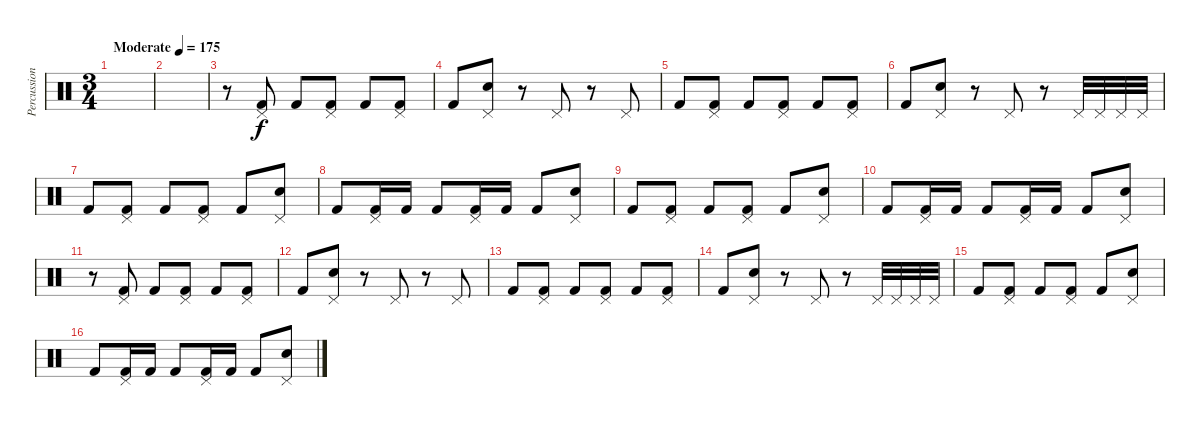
\track ("Percussion" "Percussion") {instrument percussion}
\staff {score}
\articulation defaults
\ts (3 4)
\tempo (175 "Moderate")
\clef neutral
\ks c
|
|
r.8 ("Pedal Hi-Hat (hit)" "Kick (hit) 2").8 "Kick (hit) 2".8 ("Pedal Hi-Hat (hit)" "Kick (hit) 2").8 "Kick (hit) 2".8 ("Pedal Hi-Hat (hit)" "Kick (hit) 2").8 |
"Kick (hit) 2".8 ("Pedal Hi-Hat (hit)" "Electric Snare (hit)").8 r.8 "Pedal Hi-Hat (hit)".8 r.8 "Pedal Hi-Hat (hit)".8 |
"Kick (hit) 2".8 ("Pedal Hi-Hat (hit)" "Kick (hit) 2").8 "Kick (hit) 2".8 ("Pedal Hi-Hat (hit)" "Kick (hit) 2").8 "Kick (hit) 2".8 ("Pedal Hi-Hat (hit)" "Kick (hit) 2").8 |
"Kick (hit) 2".8 ("Pedal Hi-Hat (hit)" "Electric Snare (hit)").8 r.8 "Pedal Hi-Hat (hit)".8 r.8 "Pedal Hi-Hat (hit)".32 "Pedal Hi-Hat (hit)".32 "Pedal Hi-Hat (hit)".32 "Pedal Hi-Hat (hit)".32 |
"Kick (hit) 2".8 ("Pedal Hi-Hat (hit)" "Kick (hit) 2").8 "Kick (hit) 2".8 ("Pedal Hi-Hat (hit)" "Kick (hit) 2").8 "Kick (hit) 2".8 ("Pedal Hi-Hat (hit)" "Electric Snare (hit)").8 |
"Kick (hit) 2".8 ("Pedal Hi-Hat (hit)" "Kick (hit) 2").16 "Kick (hit) 2".16 "Kick (hit) 2".8 ("Pedal Hi-Hat (hit)" "Kick (hit) 2").16 "Kick (hit) 2".16 "Kick (hit) 2".8 ("Pedal Hi-Hat (hit)" "Electric Snare (hit)").8 |
"Kick (hit) 2".8 ("Pedal Hi-Hat (hit)" "Kick (hit) 2").8 "Kick (hit) 2".8 ("Pedal Hi-Hat (hit)" "Kick (hit) 2").8 "Kick (hit) 2".8 ("Pedal Hi-Hat (hit)" "Electric Snare (hit)").8 |
"Kick (hit) 2".8 ("Pedal Hi-Hat (hit)" "Kick (hit) 2").16 "Kick (hit) 2".16 "Kick (hit) 2".8 ("Pedal Hi-Hat (hit)" "Kick (hit) 2").16 "Kick (hit) 2".16 "Kick (hit) 2".8 ("Pedal Hi-Hat (hit)" "Electric Snare (hit)").8 |
r.8 ("Pedal Hi-Hat (hit)" "Kick (hit) 2").8 "Kick (hit) 2".8 ("Pedal Hi-Hat (hit)" "Kick (hit) 2").8 "Kick (hit) 2".8 ("Pedal Hi-Hat (hit)" "Kick (hit) 2").8 |
"Kick (hit) 2".8 ("Pedal Hi-Hat (hit)" "Electric Snare (hit)").8 r.8 "Pedal Hi-Hat (hit)".8 r.8 "Pedal Hi-Hat (hit)".8 |
"Kick (hit) 2".8 ("Pedal Hi-Hat (hit)" "Kick (hit) 2").8 "Kick (hit) 2".8 ("Pedal Hi-Hat (hit)" "Kick (hit) 2").8 "Kick (hit) 2".8 ("Pedal Hi-Hat (hit)" "Kick (hit) 2").8 |
"Kick (hit) 2".8 ("Pedal Hi-Hat (hit)" "Electric Snare (hit)").8 r.8 "Pedal Hi-Hat (hit)".8 r.8 "Pedal Hi-Hat (hit)".32 "Pedal Hi-Hat (hit)".32 "Pedal Hi-Hat (hit)".32 "Pedal Hi-Hat (hit)".32 |
"Kick (hit) 2".8 ("Pedal Hi-Hat (hit)" "Kick (hit) 2").8 "Kick (hit) 2".8 ("Pedal Hi-Hat (hit)" "Kick (hit) 2").8 "Kick (hit) 2".8 ("Pedal Hi-Hat (hit)" "Electric Snare (hit)").8 |
"Kick (hit) 2".8 ("Pedal Hi-Hat (hit)" "Kick (hit) 2").16 "Kick (hit) 2".16 "Kick (hit) 2".8 ("Pedal Hi-Hat (hit)" "Kick (hit) 2").16 "Kick (hit) 2".16 "Kick (hit) 2".8 ("Pedal Hi-Hat (hit)" "Electric Snare (hit)").8
